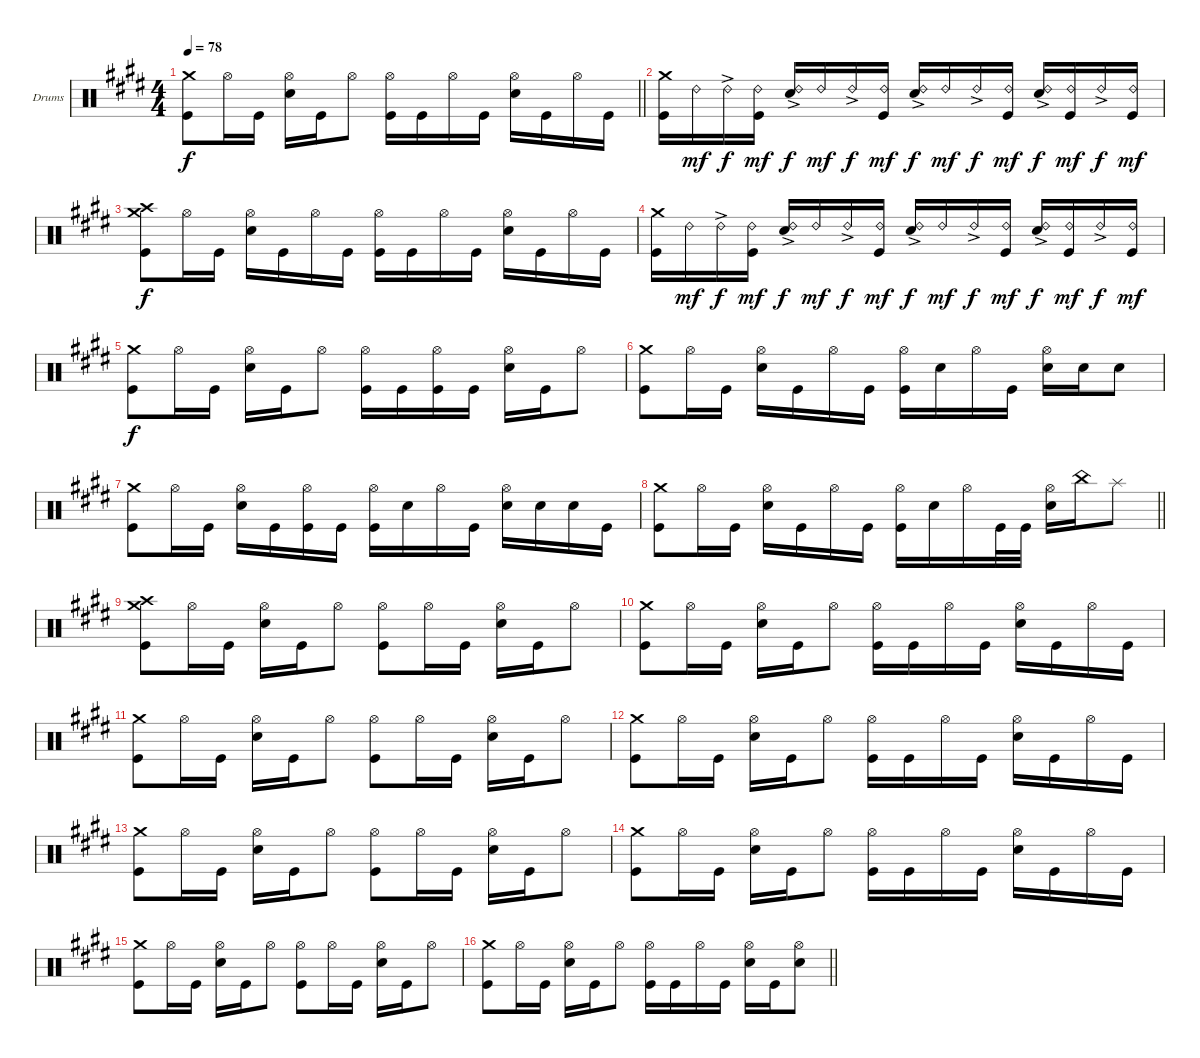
\bracketExtendMode groupsimilarinstruments
\firstSystemTrackNameOrientation horizontal
\otherSystemsTrackNameOrientation horizontal
\track ("Drumkit" "Drums") {instrument percussion}
\staff {score}
\articulation defaults
\ts (4 4)
\tempo 78
\clef neutral
\barLineRight lightlight
\ks c#minor
("Crash medium (hit)" "Kick (hit)").8{dy f} "Hi-Hat (open)".16 "Kick (hit)".16 ("Hi-Hat (open)" "Snare (hit) 2").16 "Kick (hit)".16 "Hi-Hat (open)".8 ("Hi-Hat (open)" "Kick (hit)").16 "Kick (hit)".16 "Hi-Hat (open)".16 "Kick (hit)".16 ("Hi-Hat (open)" "Snare (hit) 2").16 "Kick (hit)".16 "Hi-Hat (open)".16 "Kick (hit)".16 |
("Crash medium (hit)" "Kick (hit)").16 "Ride (bell) 2".16{dy mf} "Ride (bell) 2"{ac}.16{dy f} ("Ride (bell) 2" "Kick (hit)").16{dy mf} ("Ride (bell) 2"{ac} "Snare (hit) 2").16{dy f} "Ride (bell) 2".16{dy mf} "Ride (bell) 2"{ac}.16{dy f} ("Ride (bell) 2" "Kick (hit)").16{dy mf} ("Ride (bell) 2"{ac} "Snare (hit) 2").16{dy f} "Ride (bell) 2".16{dy mf} "Ride (bell) 2"{ac}.16{dy f} ("Ride (bell) 2" "Kick (hit)").16{dy mf} ("Ride (bell) 2"{ac} "Snare (hit) 2").16{dy f} ("Ride (bell) 2" "Kick (hit)").16{dy mf} "Ride (bell) 2"{ac}.16{dy f} ("Ride (bell) 2" "Kick (hit)").16{dy mf} |
("Crash medium (hit)" "Crash high (hit)" "Kick (hit)").8{dy f} "Hi-Hat (open)".16 "Kick (hit)".16 ("Hi-Hat (open)" "Snare (hit) 2").16 "Kick (hit)".16 "Hi-Hat (open)".16 "Kick (hit)".16 ("Hi-Hat (open)" "Kick (hit)").16 "Kick (hit)".16 "Hi-Hat (open)".16 "Kick (hit)".16 ("Hi-Hat (open)" "Snare (hit) 2").16 "Kick (hit)".16 "Hi-Hat (open)".16 "Kick (hit)".16 |
("Crash medium (hit)" "Kick (hit)").16 "Ride (bell) 2".16{dy mf} "Ride (bell) 2"{ac}.16{dy f} ("Ride (bell) 2" "Kick (hit)").16{dy mf} ("Ride (bell) 2"{ac} "Snare (hit) 2").16{dy f} "Ride (bell) 2".16{dy mf} "Ride (bell) 2"{ac}.16{dy f} ("Ride (bell) 2" "Kick (hit)").16{dy mf} ("Ride (bell) 2"{ac} "Snare (hit) 2").16{dy f} "Ride (bell) 2".16{dy mf} "Ride (bell) 2"{ac}.16{dy f} ("Ride (bell) 2" "Kick (hit)").16{dy mf} ("Ride (bell) 2"{ac} "Snare (hit) 2").16{dy f} ("Ride (bell) 2" "Kick (hit)").16{dy mf} "Ride (bell) 2"{ac}.16{dy f} ("Ride (bell) 2" "Kick (hit)").16{dy mf} |
("Crash medium (hit)" "Kick (hit)").8{dy f} "Hi-Hat (open)".16 "Kick (hit)".16 ("Hi-Hat (open)" "Snare (hit) 2").16 "Kick (hit)".16 "Hi-Hat (open)".8 ("Hi-Hat (open)" "Kick (hit)").16 "Kick (hit)".16 ("Hi-Hat (open)" "Kick (hit)").16 "Kick (hit)".16 ("Hi-Hat (open)" "Snare (hit) 2").16 "Kick (hit)".16 "Hi-Hat (open)".8 |
("Crash medium (hit)" "Kick (hit)").8 "Hi-Hat (open)".16 "Kick (hit)".16 ("Hi-Hat (open)" "Snare (hit) 2").16 "Kick (hit)".16 "Hi-Hat (open)".16 "Kick (hit)".16 ("Hi-Hat (open)" "Kick (hit)").16 "Snare (hit) 2".16 "Hi-Hat (open)".16 "Kick (hit)".16 ("Hi-Hat (open)" "Snare (hit) 2").16 "Snare (hit) 2".16 "Snare (hit) 2".8 |
("Crash medium (hit)" "Kick (hit)").8 "Hi-Hat (open)".16 "Kick (hit)".16 ("Hi-Hat (open)" "Snare (hit) 2").16 "Kick (hit)".16 ("Hi-Hat (open)" "Kick (hit)").16 "Kick (hit)".16 ("Hi-Hat (open)" "Kick (hit)").16 "Snare (hit) 2".16 "Hi-Hat (open)".16 "Kick (hit)".16 ("Hi-Hat (open)" "Snare (hit) 2").16 "Snare (hit) 2".16 "Snare (hit) 2".16 "Kick (hit)".16 |
\barLineRight lightlight
("Crash medium (hit)" "Kick (hit)").8 "Hi-Hat (open)".16 "Kick (hit)".16 ("Hi-Hat (open)" "Snare (hit) 2").16 "Kick (hit)".16 "Hi-Hat (open)".16 "Kick (hit)".16 ("Hi-Hat (open)" "Kick (hit)").16 "Snare (hit) 2".16 "Hi-Hat (open)".16 "Kick (hit)".32 "Kick (hit)".32 ("Hi-Hat (open)" "Snare (hit) 2").16 "China (hit)".16 "Splash (hit)".8 |
("Crash medium (hit)" "Crash high (hit)" "Kick (hit)").8 "Hi-Hat (open)".16 "Kick (hit)".16 ("Hi-Hat (open)" "Snare (hit) 2").16 "Kick (hit)".16 "Hi-Hat (open)".8 ("Hi-Hat (open)" "Kick (hit)").8 "Hi-Hat (open)".16 "Kick (hit)".16 ("Hi-Hat (open)" "Snare (hit) 2").16 "Kick (hit)".16 "Hi-Hat (open)".8 |
("Crash medium (hit)" "Kick (hit)").8 "Hi-Hat (open)".16 "Kick (hit)".16 ("Hi-Hat (open)" "Snare (hit) 2").16 "Kick (hit)".16 "Hi-Hat (open)".8 ("Hi-Hat (open)" "Kick (hit)").16 "Kick (hit)".16 "Hi-Hat (open)".16 "Kick (hit)".16 ("Hi-Hat (open)" "Snare (hit) 2").16 "Kick (hit)".16 "Hi-Hat (open)".16 "Kick (hit)".16 |
("Crash medium (hit)" "Kick (hit)").8 "Hi-Hat (open)".16 "Kick (hit)".16 ("Hi-Hat (open)" "Snare (hit) 2").16 "Kick (hit)".16 "Hi-Hat (open)".8 ("Hi-Hat (open)" "Kick (hit)").8 "Hi-Hat (open)".16 "Kick (hit)".16 ("Hi-Hat (open)" "Snare (hit) 2").16 "Kick (hit)".16 "Hi-Hat (open)".8 |
("Crash medium (hit)" "Kick (hit)").8 "Hi-Hat (open)".16 "Kick (hit)".16 ("Hi-Hat (open)" "Snare (hit) 2").16 "Kick (hit)".16 "Hi-Hat (open)".8 ("Hi-Hat (open)" "Kick (hit)").16 "Kick (hit)".16 "Hi-Hat (open)".16 "Kick (hit)".16 ("Hi-Hat (open)" "Snare (hit) 2").16 "Kick (hit)".16 "Hi-Hat (open)".16 "Kick (hit)".16 |
("Crash medium (hit)" "Kick (hit)").8 "Hi-Hat (open)".16 "Kick (hit)".16 ("Hi-Hat (open)" "Snare (hit) 2").16 "Kick (hit)".16 "Hi-Hat (open)".8 ("Hi-Hat (open)" "Kick (hit)").8 "Hi-Hat (open)".16 "Kick (hit)".16 ("Hi-Hat (open)" "Snare (hit) 2").16 "Kick (hit)".16 "Hi-Hat (open)".8 |
("Crash medium (hit)" "Kick (hit)").8 "Hi-Hat (open)".16 "Kick (hit)".16 ("Hi-Hat (open)" "Snare (hit) 2").16 "Kick (hit)".16 "Hi-Hat (open)".8 ("Hi-Hat (open)" "Kick (hit)").16 "Kick (hit)".16 "Hi-Hat (open)".16 "Kick (hit)".16 ("Hi-Hat (open)" "Snare (hit) 2").16 "Kick (hit)".16 "Hi-Hat (open)".16 "Kick (hit)".16 |
("Crash medium (hit)" "Kick (hit)").8 "Hi-Hat (open)".16 "Kick (hit)".16 ("Hi-Hat (open)" "Snare (hit) 2").16 "Kick (hit)".16 "Hi-Hat (open)".8 ("Hi-Hat (open)" "Kick (hit)").8 "Hi-Hat (open)".16 "Kick (hit)".16 ("Hi-Hat (open)" "Snare (hit) 2").16 "Kick (hit)".16 "Hi-Hat (open)".8 |
\barLineRight lightlight
("Crash medium (hit)" "Kick (hit)").8 "Hi-Hat (open)".16 "Kick (hit)".16 ("Hi-Hat (open)" "Snare (hit) 2").16 "Kick (hit)".16 "Hi-Hat (open)".8 ("Hi-Hat (open)" "Kick (hit)").16 "Kick (hit)".16 "Hi-Hat (open)".16 "Kick (hit)".16 ("Hi-Hat (open)" "Snare (hit) 2").16 "Kick (hit)".16 ("Hi-Hat (open)" "Snare (hit) 2").8
